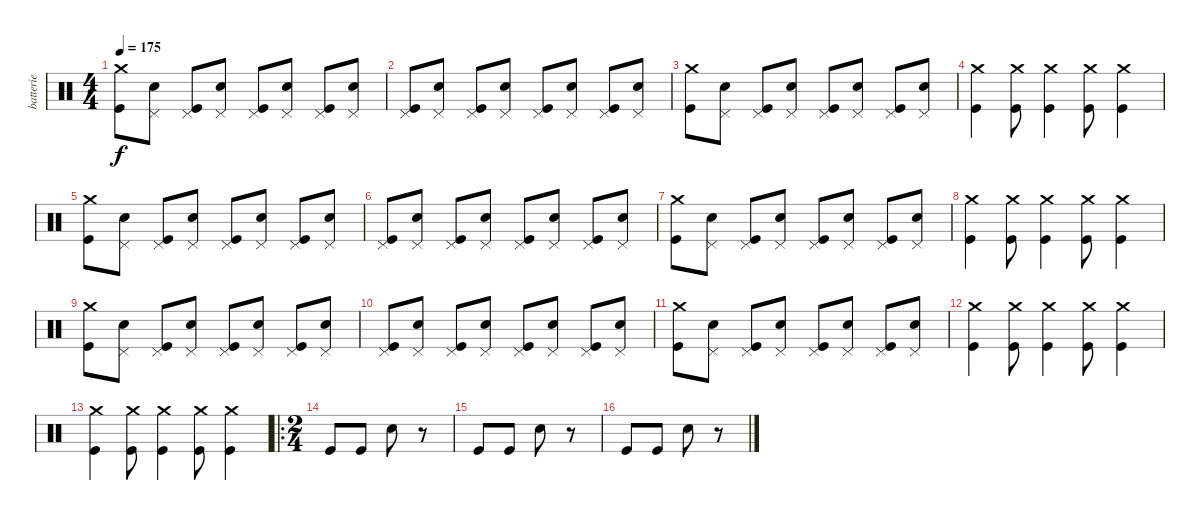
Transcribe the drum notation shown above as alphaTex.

\track ("batterie" "batterie") {instrument percussion}
\staff {score}
\articulation defaults
\ts (4 4)
\tempo 175
\clef neutral
\ks c
("Crash medium (hit)" "Kick (hit)").8{dy f} ("Pedal Hi-Hat (hit)" "Snare (hit) 2").8 ("Pedal Hi-Hat (hit)" "Kick (hit)").8 ("Pedal Hi-Hat (hit)" "Snare (hit) 2").8 ("Pedal Hi-Hat (hit)" "Kick (hit)").8 ("Pedal Hi-Hat (hit)" "Snare (hit) 2").8 ("Pedal Hi-Hat (hit)" "Kick (hit)").8 ("Pedal Hi-Hat (hit)" "Snare (hit) 2").8 |
("Pedal Hi-Hat (hit)" "Kick (hit)").8 ("Pedal Hi-Hat (hit)" "Snare (hit) 2").8 ("Pedal Hi-Hat (hit)" "Kick (hit)").8 ("Pedal Hi-Hat (hit)" "Snare (hit) 2").8 ("Pedal Hi-Hat (hit)" "Kick (hit)").8 ("Pedal Hi-Hat (hit)" "Snare (hit) 2").8 ("Pedal Hi-Hat (hit)" "Kick (hit)").8 ("Pedal Hi-Hat (hit)" "Snare (hit) 2").8 |
("Crash medium (hit)" "Kick (hit)").8 ("Pedal Hi-Hat (hit)" "Snare (hit) 2").8 ("Pedal Hi-Hat (hit)" "Kick (hit)").8 ("Pedal Hi-Hat (hit)" "Snare (hit) 2").8 ("Pedal Hi-Hat (hit)" "Kick (hit)").8 ("Pedal Hi-Hat (hit)" "Snare (hit) 2").8 ("Pedal Hi-Hat (hit)" "Kick (hit)").8 ("Pedal Hi-Hat (hit)" "Snare (hit) 2").8 |
("Crash medium (hit)" "Kick (hit)").4 ("Crash medium (hit)" "Kick (hit)").8 ("Crash medium (hit)" "Kick (hit)").4 ("Crash medium (hit)" "Kick (hit)").8 ("Crash medium (hit)" "Kick (hit)").4 |
("Crash medium (hit)" "Kick (hit)").8 ("Pedal Hi-Hat (hit)" "Snare (hit) 2").8 ("Pedal Hi-Hat (hit)" "Kick (hit)").8 ("Pedal Hi-Hat (hit)" "Snare (hit) 2").8 ("Pedal Hi-Hat (hit)" "Kick (hit)").8 ("Pedal Hi-Hat (hit)" "Snare (hit) 2").8 ("Pedal Hi-Hat (hit)" "Kick (hit)").8 ("Pedal Hi-Hat (hit)" "Snare (hit) 2").8 |
("Pedal Hi-Hat (hit)" "Kick (hit)").8 ("Pedal Hi-Hat (hit)" "Snare (hit) 2").8 ("Pedal Hi-Hat (hit)" "Kick (hit)").8 ("Pedal Hi-Hat (hit)" "Snare (hit) 2").8 ("Pedal Hi-Hat (hit)" "Kick (hit)").8 ("Pedal Hi-Hat (hit)" "Snare (hit) 2").8 ("Pedal Hi-Hat (hit)" "Kick (hit)").8 ("Pedal Hi-Hat (hit)" "Snare (hit) 2").8 |
("Crash medium (hit)" "Kick (hit)").8 ("Pedal Hi-Hat (hit)" "Snare (hit) 2").8 ("Pedal Hi-Hat (hit)" "Kick (hit)").8 ("Pedal Hi-Hat (hit)" "Snare (hit) 2").8 ("Pedal Hi-Hat (hit)" "Kick (hit)").8 ("Pedal Hi-Hat (hit)" "Snare (hit) 2").8 ("Pedal Hi-Hat (hit)" "Kick (hit)").8 ("Pedal Hi-Hat (hit)" "Snare (hit) 2").8 |
("Crash medium (hit)" "Kick (hit)").4 ("Crash medium (hit)" "Kick (hit)").8 ("Crash medium (hit)" "Kick (hit)").4 ("Crash medium (hit)" "Kick (hit)").8 ("Crash medium (hit)" "Kick (hit)").4 |
("Crash medium (hit)" "Kick (hit)").8 ("Pedal Hi-Hat (hit)" "Snare (hit) 2").8 ("Pedal Hi-Hat (hit)" "Kick (hit)").8 ("Pedal Hi-Hat (hit)" "Snare (hit) 2").8 ("Pedal Hi-Hat (hit)" "Kick (hit)").8 ("Pedal Hi-Hat (hit)" "Snare (hit) 2").8 ("Pedal Hi-Hat (hit)" "Kick (hit)").8 ("Pedal Hi-Hat (hit)" "Snare (hit) 2").8 |
("Pedal Hi-Hat (hit)" "Kick (hit)").8 ("Pedal Hi-Hat (hit)" "Snare (hit) 2").8 ("Pedal Hi-Hat (hit)" "Kick (hit)").8 ("Pedal Hi-Hat (hit)" "Snare (hit) 2").8 ("Pedal Hi-Hat (hit)" "Kick (hit)").8 ("Pedal Hi-Hat (hit)" "Snare (hit) 2").8 ("Pedal Hi-Hat (hit)" "Kick (hit)").8 ("Pedal Hi-Hat (hit)" "Snare (hit) 2").8 |
("Crash medium (hit)" "Kick (hit)").8 ("Pedal Hi-Hat (hit)" "Snare (hit) 2").8 ("Pedal Hi-Hat (hit)" "Kick (hit)").8 ("Pedal Hi-Hat (hit)" "Snare (hit) 2").8 ("Pedal Hi-Hat (hit)" "Kick (hit)").8 ("Pedal Hi-Hat (hit)" "Snare (hit) 2").8 ("Pedal Hi-Hat (hit)" "Kick (hit)").8 ("Pedal Hi-Hat (hit)" "Snare (hit) 2").8 |
("Crash medium (hit)" "Kick (hit)").4 ("Crash medium (hit)" "Kick (hit)").8 ("Crash medium (hit)" "Kick (hit)").4 ("Crash medium (hit)" "Kick (hit)").8 ("Crash medium (hit)" "Kick (hit)").4 |
("Crash medium (hit)" "Kick (hit)").4 ("Crash medium (hit)" "Kick (hit)").8 ("Crash medium (hit)" "Kick (hit)").4 ("Crash medium (hit)" "Kick (hit)").8 ("Crash medium (hit)" "Kick (hit)").4 |
\ro
\ts (2 4)
"Kick (hit)".8 "Kick (hit)".8 "Snare (hit) 2".8 r.8 |
"Kick (hit)".8 "Kick (hit)".8 "Snare (hit) 2".8 r.8 |
"Kick (hit)".8 "Kick (hit)".8 "Snare (hit) 2".8 r.8
